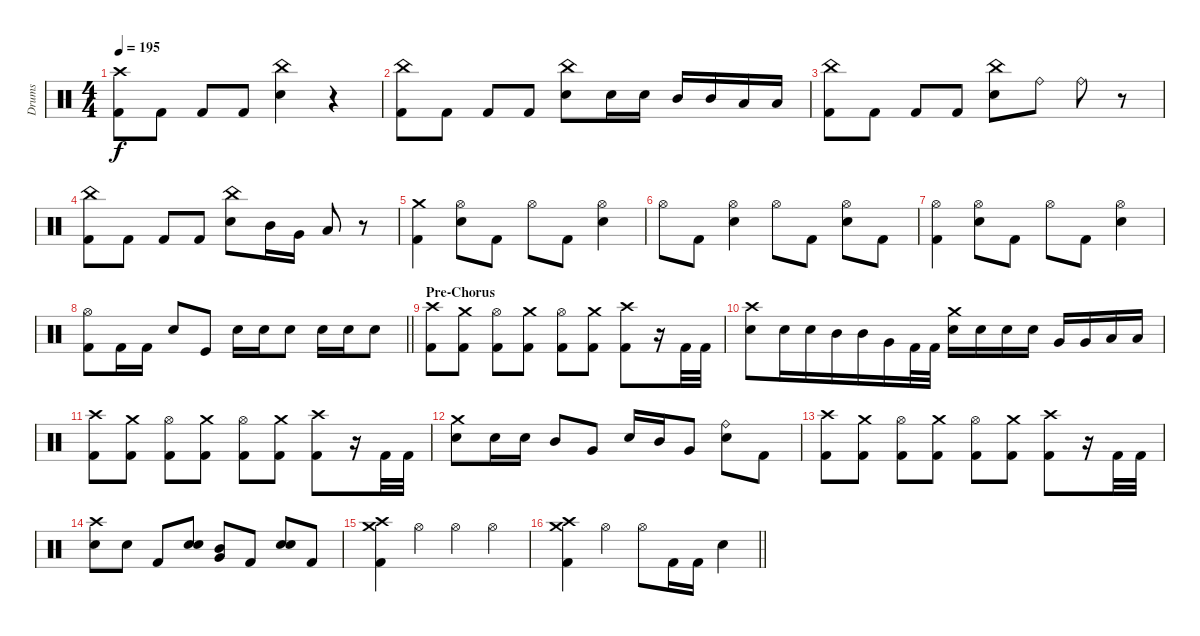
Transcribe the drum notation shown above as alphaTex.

\track ("Drums" "Drums") {instrument percussion}
\staff {score}
\articulation defaults
\ts (4 4)
\tempo 195
\clef neutral
\ks c
("Crash high (hit)" "Kick (hit) 2").8{dy f} "Kick (hit) 2".8 "Kick (hit) 2".8 "Kick (hit) 2".8 ("China (hit)" "Snare (hit) 2").4 r.4 |
("China (hit)" "Kick (hit) 2").8 "Kick (hit) 2".8 "Kick (hit) 2".8 "Kick (hit) 2".8 ("China (hit)" "Snare (hit) 2").8 "Snare (hit) 2".16 "Snare (hit) 2".16 "Mid Tom (hit)".16 "Mid Tom (hit)".16 "Low Floor Tom (hit)".16 "Low Floor Tom (hit)".16 |
("China (hit)" "Kick (hit) 2").8 "Kick (hit) 2".8 "Kick (hit) 2".8 "Kick (hit) 2".8 ("China (hit)" "Snare (hit) 2").8 "Ride (bell)".8 "Ride (bell)".8 r.8 |
("China (hit)" "Kick (hit) 2").8 "Kick (hit) 2".8 "Kick (hit) 2".8 "Kick (hit) 2".8 ("China (hit)" "Snare (hit) 2").8 "Mid Tom (hit)".16 "Very Low Tom (hit)".16 "Low Floor Tom (hit)".8 r.8 |
("Crash medium (hit)" "Kick (hit) 2").4 ("Hi-Hat (open)" "Snare (hit) 2").8 "Kick (hit) 2".8 "Hi-Hat (open)".8 "Kick (hit) 2".8 ("Hi-Hat (open)" "Snare (hit) 2").4 |
"Hi-Hat (open)".8 "Kick (hit) 2".8 ("Hi-Hat (open)" "Snare (hit) 2").4 "Hi-Hat (open)".8 "Kick (hit) 2".8 ("Hi-Hat (open)" "Snare (hit) 2").8 "Kick (hit) 2".8 |
("Hi-Hat (open)" "Kick (hit) 2").4 ("Hi-Hat (open)" "Snare (hit) 2").8 "Kick (hit) 2".8 "Hi-Hat (open)".8 "Kick (hit) 2".8 ("Hi-Hat (open)" "Snare (hit) 2").4 |
\barLineRight lightlight
("Hi-Hat (open)" "Kick (hit) 2").8 "Kick (hit) 2".16 "Kick (hit) 2".16 "Snare (hit) 2".8 "Kick (hit)".8 "Snare (hit) 2".16 "Snare (hit) 2".16 "Snare (hit) 2".8 "Snare (hit) 2".16 "Snare (hit) 2".16 "Snare (hit) 2".8 |
\section ("" "Pre-Chorus")
("Crash high (hit)" "Kick (hit) 2").8 ("Crash medium (hit)" "Kick (hit) 2").8 ("Hi-Hat (open)" "Kick (hit) 2").8 ("Crash medium (hit)" "Kick (hit) 2").8 ("Hi-Hat (open)" "Kick (hit) 2").8 ("Crash medium (hit)" "Kick (hit) 2").8 ("Crash high (hit)" "Kick (hit) 2").8 r.16 "Kick (hit) 2".32 "Kick (hit) 2".32 |
("Crash high (hit)" "Snare (hit) 2").8 "Snare (hit) 2".16 "Snare (hit) 2".16{beam merge} "Mid Tom (hit)".16 "Mid Tom (hit)".16 "Very Low Tom (hit)".16 "Kick (hit) 2".32 "Kick (hit) 2".32 ("Crash medium (hit)" "Snare (hit) 2").16 "Snare (hit) 2".16 "Snare (hit) 2".16 "Snare (hit) 2".16 "Very Low Tom (hit)".16 "Very Low Tom (hit)".16 "Low Floor Tom (hit)".16 "Low Floor Tom (hit)".16 |
("Crash high (hit)" "Kick (hit) 2").8 ("Crash medium (hit)" "Kick (hit) 2").8 ("Hi-Hat (open)" "Kick (hit) 2").8 ("Crash medium (hit)" "Kick (hit) 2").8 ("Hi-Hat (open)" "Kick (hit) 2").8 ("Crash medium (hit)" "Kick (hit) 2").8 ("Crash high (hit)" "Kick (hit) 2").8 r.16 "Kick (hit) 2".32 "Kick (hit) 2".32 |
("Crash medium (hit)" "Snare (hit) 2").8 "Snare (hit) 2".16 "Snare (hit) 2".16 "Mid Tom (hit)".8 "Very Low Tom (hit)".8 "Snare (hit) 2".16 "Mid Tom (hit)".16 "Very Low Tom (hit)".8 ("Ride (bell)" "Snare (hit) 2").8 "Kick (hit) 2".8 |
("Crash high (hit)" "Kick (hit) 2").8 ("Crash medium (hit)" "Kick (hit) 2").8 ("Hi-Hat (open)" "Kick (hit) 2").8 ("Crash medium (hit)" "Kick (hit) 2").8 ("Hi-Hat (open)" "Kick (hit) 2").8 ("Crash medium (hit)" "Kick (hit) 2").8 ("Crash high (hit)" "Kick (hit) 2").8 r.16 "Kick (hit) 2".32 "Kick (hit) 2".32 |
("Crash high (hit)" "Snare (hit) 2").8 "Snare (hit) 2".8 "Kick (hit) 2".8 ("Snare (hit) 2" "Snare (hit) 2").8 ("Mid Tom (hit)" "Very Low Tom (hit)").8 "Kick (hit) 2".8 ("Snare (hit) 2" "Snare (hit) 2").8 "Kick (hit) 2".8 |
("Crash medium (hit)" "Crash high (hit)" "Kick (hit) 2").4 "Hi-Hat (open)".4 "Hi-Hat (open)".4 "Hi-Hat (open)".4 |
\barLineRight lightlight
("Crash medium (hit)" "Crash high (hit)" "Kick (hit) 2").4 "Hi-Hat (open)".4 "Hi-Hat (open)".8 "Kick (hit) 2".16 "Kick (hit) 2".16 "Snare (hit) 2".4
